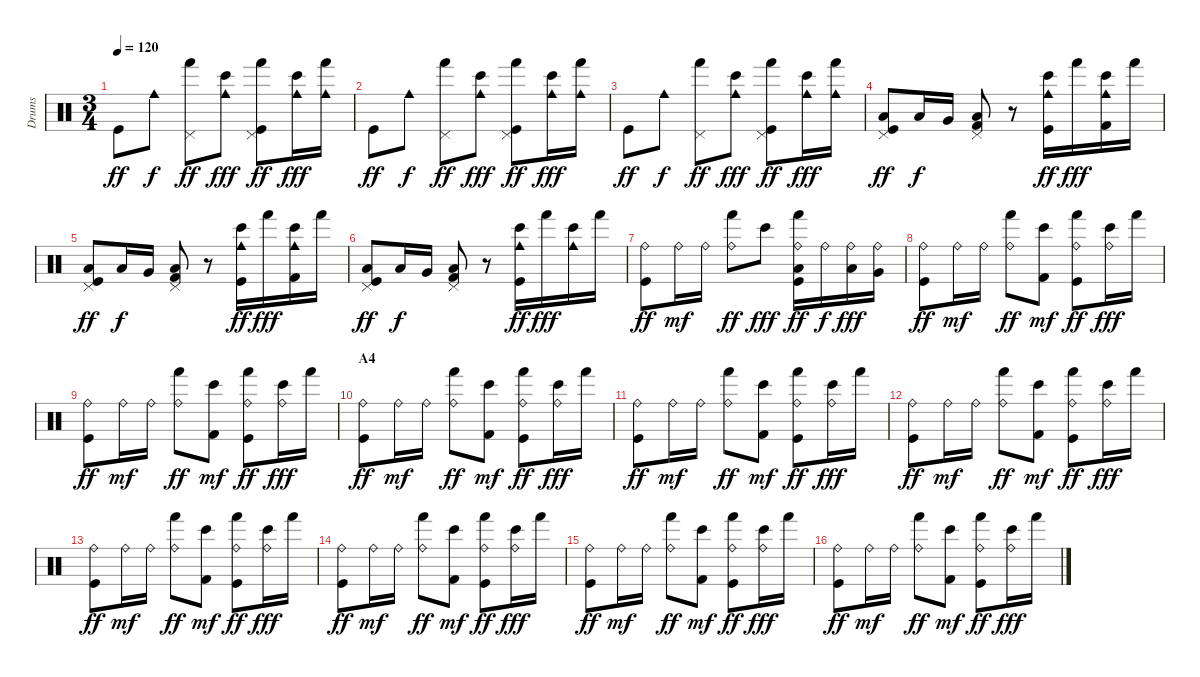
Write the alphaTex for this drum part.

\track ("Drums" "Drums") {instrument percussion}
\staff {score}
\articulation defaults
\ts (3 4)
\tempo 120
\clef neutral
\ks c "Kick (hit)".8{dy ff} "Cowbell medium (hit)".8{dy f}
("Pedal Hi-Hat (hit)" "Hand (hit)").8{dy ff} ("Cowbell medium (hit)" "Bongo High (hit)").8{dy fff} ("Pedal Hi-Hat (hit)" "Hand (hit)" "Kick (hit)").8{dy ff} ("Cowbell medium (hit)" "Bongo High (hit)").16{dy fff} ("Cowbell medium (hit)" "Hand (hit)").16 |
"Kick (hit)".8{dy ff} "Cowbell medium (hit)".8{dy f} ("Pedal Hi-Hat (hit)" "Hand (hit)").8{dy ff} ("Cowbell medium (hit)" "Bongo High (hit)").8{dy fff} ("Pedal Hi-Hat (hit)" "Hand (hit)" "Kick (hit)").8{dy ff} ("Cowbell medium (hit)" "Bongo High (hit)").16{dy fff} ("Cowbell medium (hit)" "Hand (hit)").16 |
"Kick (hit)".8{dy ff} "Cowbell medium (hit)".8{dy f} ("Pedal Hi-Hat (hit)" "Hand (hit)").8{dy ff} ("Cowbell medium (hit)" "Bongo High (hit)").8{dy fff} ("Pedal Hi-Hat (hit)" "Hand (hit)" "Kick (hit)").8{dy ff} ("Cowbell medium (hit)" "Bongo High (hit)").16{dy fff} ("Cowbell medium (hit)" "Hand (hit)").16 |
("Pedal Hi-Hat (hit)" "Low Floor Tom (hit)" "Kick (hit)").8{dy ff} "Low Tom (hit)".16{dy f} "Very Low Tom (hit)".16 ("Pedal Hi-Hat (hit)" "Low Floor Tom (hit)" "Kick (hit) 2").8 r.8 ("Cowbell medium (hit)" "Bongo High (hit)" "Kick (hit)").16{dy ff} "Hand (hit)".16{dy fff} ("Cowbell medium (hit)" "Bongo High (hit)" "Kick (hit) 2").16 "Hand (hit)".16 |
("Pedal Hi-Hat (hit)" "Low Floor Tom (hit)" "Kick (hit)").8{dy ff} "Low Tom (hit)".16{dy f} "Very Low Tom (hit)".16 ("Pedal Hi-Hat (hit)" "Low Floor Tom (hit)" "Kick (hit) 2").8 r.8 ("Cowbell medium (hit)" "Bongo High (hit)" "Kick (hit)").16{dy ff} "Hand (hit)".16{dy fff} ("Cowbell medium (hit)" "Bongo High (hit)" "Kick (hit) 2").16 "Hand (hit)".16 |
("Pedal Hi-Hat (hit)" "Low Floor Tom (hit)" "Kick (hit)").8{dy ff} "Low Tom (hit)".16{dy f} "Very Low Tom (hit)".16 ("Pedal Hi-Hat (hit)" "Low Floor Tom (hit)" "Kick (hit) 2").8 r.8 ("Cowbell medium (hit)" "Bongo High (hit)" "Kick (hit)").16{dy ff} "Hand (hit)".16{dy fff} ("Cowbell medium (hit)" "Bongo High (hit)").16 "Hand (hit)".16 |
("Ride (bell)" "Kick (hit)").8{dy ff} "Ride (bell)".16{dy mf} "Ride (bell)".16 ("Ride (bell)" "Hand (hit)").8{dy ff} "Bongo High (hit)".8{dy fff} ("Ride (bell)" "Hand (hit)" "Low Floor Tom (hit)" "Kick (hit)").16{dy ff} "Ride (bell)".16{dy f} ("Ride (bell)" "Low Tom (hit)").16{dy fff} ("Ride (bell)" "Very Low Tom (hit)").16 |
("Ride (bell)" "Kick (hit)").8{dy ff} "Ride (bell)".16{dy mf} "Ride (bell)".16 ("Ride (bell)" "Hand (hit)").8{dy ff} ("Bongo High (hit)" "Kick (hit) 2").8{dy mf} ("Ride (bell)" "Hand (hit)" "Kick (hit)").8{dy ff} ("Ride (bell)" "Bongo High (hit)").16{dy fff} "Hand (hit)".16 |
("Ride (bell)" "Kick (hit)").8{dy ff} "Ride (bell)".16{dy mf} "Ride (bell)".16 ("Ride (bell)" "Hand (hit)").8{dy ff} ("Bongo High (hit)" "Kick (hit) 2").8{dy mf} ("Ride (bell)" "Hand (hit)" "Kick (hit)").8{dy ff} ("Ride (bell)" "Bongo High (hit)").16{dy fff} "Hand (hit)".16 |
\section ("" "A4")
("Ride (bell)" "Kick (hit)").8{dy ff} "Ride (bell)".16{dy mf} "Ride (bell)".16 ("Ride (bell)" "Hand (hit)").8{dy ff} ("Bongo High (hit)" "Kick (hit) 2").8{dy mf} ("Ride (bell)" "Hand (hit)" "Kick (hit)").8{dy ff} ("Ride (bell)" "Bongo High (hit)").16{dy fff} "Hand (hit)".16 |
("Ride (bell)" "Kick (hit)").8{dy ff} "Ride (bell)".16{dy mf} "Ride (bell)".16 ("Ride (bell)" "Hand (hit)").8{dy ff} ("Bongo High (hit)" "Kick (hit) 2").8{dy mf} ("Ride (bell)" "Hand (hit)" "Kick (hit)").8{dy ff} ("Ride (bell)" "Bongo High (hit)").16{dy fff} "Hand (hit)".16 |
("Ride (bell)" "Kick (hit)").8{dy ff} "Ride (bell)".16{dy mf} "Ride (bell)".16 ("Ride (bell)" "Hand (hit)").8{dy ff} ("Bongo High (hit)" "Kick (hit) 2").8{dy mf} ("Ride (bell)" "Hand (hit)" "Kick (hit)").8{dy ff} ("Ride (bell)" "Bongo High (hit)").16{dy fff} "Hand (hit)".16 |
("Ride (bell)" "Kick (hit)").8{dy ff} "Ride (bell)".16{dy mf} "Ride (bell)".16 ("Ride (bell)" "Hand (hit)").8{dy ff} ("Bongo High (hit)" "Kick (hit) 2").8{dy mf} ("Ride (bell)" "Hand (hit)" "Kick (hit)").8{dy ff} ("Ride (bell)" "Bongo High (hit)").16{dy fff} "Hand (hit)".16 |
("Ride (bell)" "Kick (hit)").8{dy ff} "Ride (bell)".16{dy mf} "Ride (bell)".16 ("Ride (bell)" "Hand (hit)").8{dy ff} ("Bongo High (hit)" "Kick (hit) 2").8{dy mf} ("Ride (bell)" "Hand (hit)" "Kick (hit)").8{dy ff} ("Ride (bell)" "Bongo High (hit)").16{dy fff} "Hand (hit)".16 |
("Ride (bell)" "Kick (hit)").8{dy ff} "Ride (bell)".16{dy mf} "Ride (bell)".16 ("Ride (bell)" "Hand (hit)").8{dy ff} ("Bongo High (hit)" "Kick (hit) 2").8{dy mf} ("Ride (bell)" "Hand (hit)" "Kick (hit)").8{dy ff} ("Ride (bell)" "Bongo High (hit)").16{dy fff} "Hand (hit)".16 |
("Ride (bell)" "Kick (hit)").8{dy ff} "Ride (bell)".16{dy mf} "Ride (bell)".16 ("Ride (bell)" "Hand (hit)").8{dy ff} ("Bongo High (hit)" "Kick (hit) 2").8{dy mf} ("Ride (bell)" "Hand (hit)" "Kick (hit)").8{dy ff} ("Ride (bell)" "Bongo High (hit)").16{dy fff} "Hand (hit)".16
